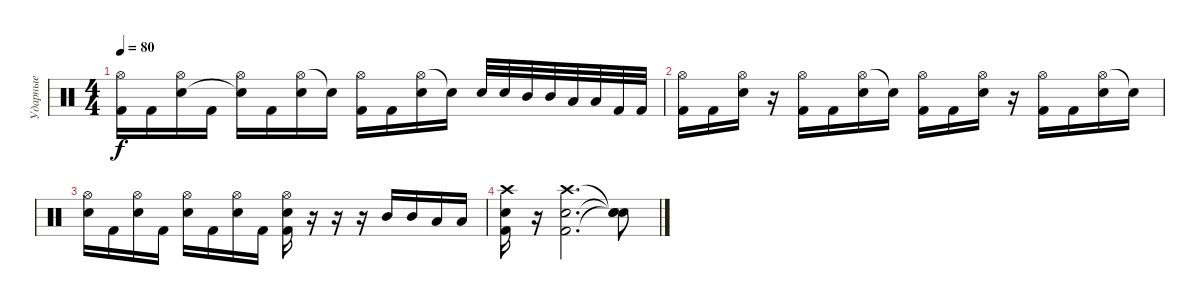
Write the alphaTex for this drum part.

\track ("Ударные" "Ударные") {instrument percussion}
\staff {score}
\articulation defaults
\ts (4 4)
\tempo 80
\clef neutral
\ks c
("Hi-Hat (open)" "Kick (hit) 2").16{dy f} "Kick (hit) 2".16 ("Hi-Hat (open)" "Electric Snare (hit)").16 "Kick (hit) 2".16 ("Hi-Hat (open)" "Snare (hit)"{t}).16 "Kick (hit) 2".16 ("Hi-Hat (open)" "Electric Snare (hit)").16 "Snare (hit)"{t}.16 ("Hi-Hat (open)" "Kick (hit) 2").16 "Kick (hit) 2".16 ("Hi-Hat (open)" "Electric Snare (hit)").16 "Snare (hit)"{t}.16 "Electric Snare (hit)".32 "Electric Snare (hit)".32 "Mid Tom (hit)".32 "Mid Tom (hit)".32 "Low Tom (hit)".32 "Low Tom (hit)".32 "Kick (hit) 2".32 "Kick (hit) 2".32 |
("Hi-Hat (open)" "Kick (hit) 2").16 "Kick (hit) 2".16 ("Hi-Hat (open)" "Electric Snare (hit)").16 r.16 ("Hi-Hat (open)" "Kick (hit) 2").16 "Kick (hit) 2".16 ("Hi-Hat (open)" "Electric Snare (hit)").16 "Snare (hit)"{t}.16 ("Hi-Hat (open)" "Kick (hit) 2").16 "Kick (hit) 2".16 ("Hi-Hat (open)" "Electric Snare (hit)").16 r.16 ("Hi-Hat (open)" "Kick (hit) 2").16 "Kick (hit) 2".16 ("Hi-Hat (open)" "Electric Snare (hit)").16 "Snare (hit)"{t}.16 |
("Hi-Hat (open)" "Electric Snare (hit)").16 "Kick (hit) 2".16 ("Hi-Hat (open)" "Electric Snare (hit)").16 "Kick (hit) 2".16 ("Hi-Hat (open)" "Electric Snare (hit)").16 "Kick (hit) 2".16 ("Hi-Hat (open)" "Electric Snare (hit)").16 "Kick (hit) 2".16 ("Hi-Hat (open)" "Electric Snare (hit)" "Kick (hit) 2").16 r.16 r.16 r.16 "Mid Tom (hit)".16 "Mid Tom (hit)".16 "Low Tom (hit)".16 "Low Tom (hit)".16 |
("Crash high (hit)" "Electric Snare (hit)" "Kick (hit) 2").16 r.16 ("Crash high (hit)" "Electric Snare (hit)" "Kick (hit) 2").2{d} ("Snare (hit)"{t} "Snare (hit)"{t} "Snare (hit)"{t}).8
